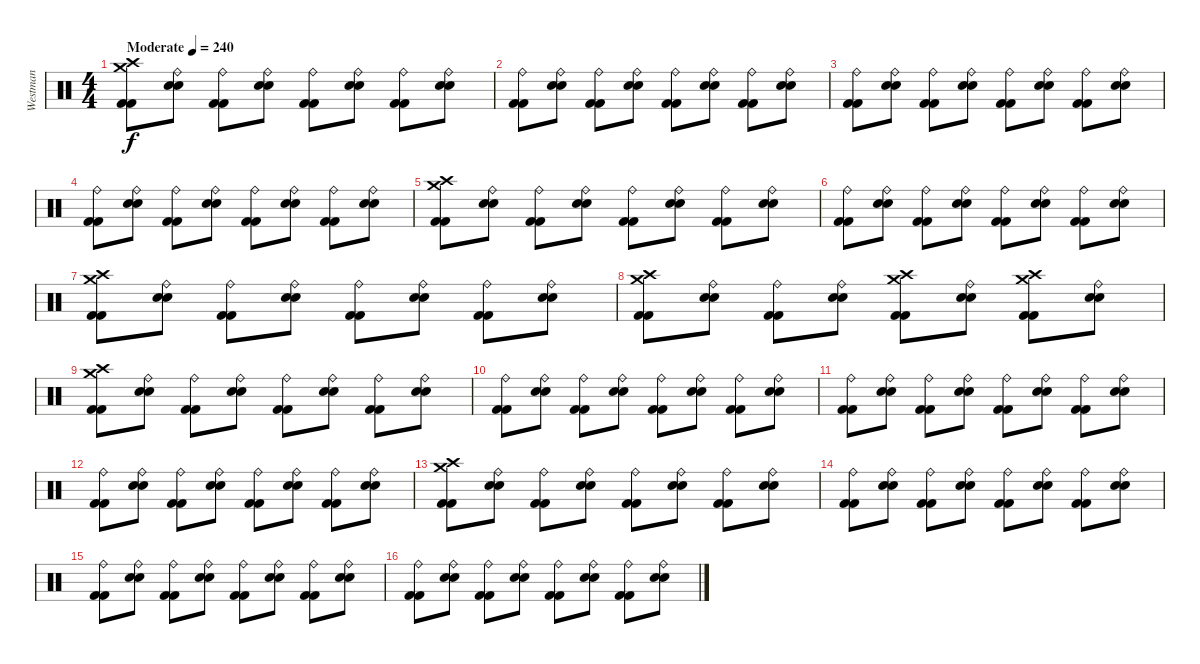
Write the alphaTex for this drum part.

\track ("Westman" "Westman") {instrument percussion}
\staff {score}
\articulation defaults
\ts (4 4)
\tempo (240 "Moderate")
\clef neutral
\ks c
("Kick (hit) 2" "Kick (hit) 2" "Crash medium (hit)" "Crash high (hit)").8{dy f} ("Electric Snare (hit)" "Electric Snare (hit)" "Ride (bell)").8 ("Kick (hit) 2" "Kick (hit) 2" "Ride (bell)").8 ("Electric Snare (hit)" "Electric Snare (hit)" "Ride (bell)").8 ("Kick (hit) 2" "Kick (hit) 2" "Ride (bell)").8 ("Electric Snare (hit)" "Electric Snare (hit)" "Ride (bell)").8 ("Kick (hit) 2" "Kick (hit) 2" "Ride (bell)").8 ("Electric Snare (hit)" "Electric Snare (hit)" "Ride (bell)").8 |
("Kick (hit) 2" "Kick (hit) 2" "Ride (bell)").8 ("Electric Snare (hit)" "Electric Snare (hit)" "Ride (bell)").8 ("Kick (hit) 2" "Kick (hit) 2" "Ride (bell)").8 ("Electric Snare (hit)" "Electric Snare (hit)" "Ride (bell)").8 ("Kick (hit) 2" "Kick (hit) 2" "Ride (bell)").8 ("Electric Snare (hit)" "Electric Snare (hit)" "Ride (bell)").8 ("Kick (hit) 2" "Kick (hit) 2" "Ride (bell)").8 ("Electric Snare (hit)" "Electric Snare (hit)" "Ride (bell)").8 |
("Kick (hit) 2" "Kick (hit) 2" "Ride (bell)").8 ("Electric Snare (hit)" "Electric Snare (hit)" "Ride (bell)").8 ("Kick (hit) 2" "Kick (hit) 2" "Ride (bell)").8 ("Electric Snare (hit)" "Electric Snare (hit)" "Ride (bell)").8 ("Kick (hit) 2" "Kick (hit) 2" "Ride (bell)").8 ("Electric Snare (hit)" "Electric Snare (hit)" "Ride (bell)").8 ("Kick (hit) 2" "Kick (hit) 2" "Ride (bell)").8 ("Electric Snare (hit)" "Electric Snare (hit)" "Ride (bell)").8 |
("Kick (hit) 2" "Kick (hit) 2" "Ride (bell)").8 ("Electric Snare (hit)" "Electric Snare (hit)" "Ride (bell)").8 ("Kick (hit) 2" "Kick (hit) 2" "Ride (bell)").8 ("Electric Snare (hit)" "Electric Snare (hit)" "Ride (bell)").8 ("Kick (hit) 2" "Kick (hit) 2" "Ride (bell)").8 ("Electric Snare (hit)" "Electric Snare (hit)" "Ride (bell)").8 ("Kick (hit) 2" "Kick (hit) 2" "Ride (bell)").8 ("Electric Snare (hit)" "Electric Snare (hit)" "Ride (bell)").8 |
("Kick (hit) 2" "Kick (hit) 2" "Crash medium (hit)" "Crash high (hit)").8 ("Electric Snare (hit)" "Electric Snare (hit)" "Ride (bell)").8 ("Kick (hit) 2" "Kick (hit) 2" "Ride (bell)").8 ("Electric Snare (hit)" "Electric Snare (hit)" "Ride (bell)").8 ("Kick (hit) 2" "Kick (hit) 2" "Ride (bell)").8 ("Electric Snare (hit)" "Electric Snare (hit)" "Ride (bell)").8 ("Kick (hit) 2" "Kick (hit) 2" "Ride (bell)").8 ("Electric Snare (hit)" "Electric Snare (hit)" "Ride (bell)").8 |
("Kick (hit) 2" "Kick (hit) 2" "Ride (bell)").8 ("Electric Snare (hit)" "Electric Snare (hit)" "Ride (bell)").8 ("Kick (hit) 2" "Kick (hit) 2" "Ride (bell)").8 ("Electric Snare (hit)" "Electric Snare (hit)" "Ride (bell)").8 ("Kick (hit) 2" "Kick (hit) 2" "Ride (bell)").8 ("Electric Snare (hit)" "Electric Snare (hit)" "Ride (bell)").8 ("Kick (hit) 2" "Kick (hit) 2" "Ride (bell)").8 ("Electric Snare (hit)" "Electric Snare (hit)" "Ride (bell)").8 |
("Kick (hit) 2" "Kick (hit) 2" "Crash high (hit)" "Crash medium (hit)").8 ("Electric Snare (hit)" "Electric Snare (hit)" "Ride (bell)").8 ("Kick (hit) 2" "Kick (hit) 2" "Ride (bell)").8 ("Electric Snare (hit)" "Electric Snare (hit)" "Ride (bell)").8 ("Kick (hit) 2" "Kick (hit) 2" "Ride (bell)").8 ("Electric Snare (hit)" "Electric Snare (hit)" "Ride (bell)").8 ("Kick (hit) 2" "Kick (hit) 2" "Ride (bell)").8 ("Electric Snare (hit)" "Electric Snare (hit)" "Ride (bell)").8 |
("Kick (hit) 2" "Kick (hit) 2" "Crash high (hit)" "Crash medium (hit)").8 ("Electric Snare (hit)" "Electric Snare (hit)" "Ride (bell)").8 ("Kick (hit) 2" "Kick (hit) 2" "Ride (bell)").8 ("Electric Snare (hit)" "Electric Snare (hit)" "Ride (bell)").8 ("Kick (hit) 2" "Kick (hit) 2" "Crash medium (hit)" "Crash high (hit)").8 ("Electric Snare (hit)" "Electric Snare (hit)" "Ride (bell)").8 ("Kick (hit) 2" "Kick (hit) 2" "Crash high (hit)" "Crash medium (hit)").8 ("Electric Snare (hit)" "Electric Snare (hit)" "Ride (bell)").8 |
("Kick (hit) 2" "Kick (hit) 2" "Crash medium (hit)" "Crash high (hit)").8 ("Electric Snare (hit)" "Electric Snare (hit)" "Ride (bell)").8 ("Kick (hit) 2" "Kick (hit) 2" "Ride (bell)").8 ("Electric Snare (hit)" "Electric Snare (hit)" "Ride (bell)").8 ("Kick (hit) 2" "Kick (hit) 2" "Ride (bell)").8 ("Electric Snare (hit)" "Electric Snare (hit)" "Ride (bell)").8 ("Kick (hit) 2" "Kick (hit) 2" "Ride (bell)").8 ("Electric Snare (hit)" "Electric Snare (hit)" "Ride (bell)").8 |
("Kick (hit) 2" "Kick (hit) 2" "Ride (bell)").8 ("Electric Snare (hit)" "Electric Snare (hit)" "Ride (bell)").8 ("Kick (hit) 2" "Kick (hit) 2" "Ride (bell)").8 ("Electric Snare (hit)" "Electric Snare (hit)" "Ride (bell)").8 ("Kick (hit) 2" "Kick (hit) 2" "Ride (bell)").8 ("Electric Snare (hit)" "Electric Snare (hit)" "Ride (bell)").8 ("Kick (hit) 2" "Kick (hit) 2" "Ride (bell)").8 ("Electric Snare (hit)" "Electric Snare (hit)" "Ride (bell)").8 |
("Kick (hit) 2" "Kick (hit) 2" "Ride (bell)").8 ("Electric Snare (hit)" "Electric Snare (hit)" "Ride (bell)").8 ("Kick (hit) 2" "Kick (hit) 2" "Ride (bell)").8 ("Electric Snare (hit)" "Electric Snare (hit)" "Ride (bell)").8 ("Kick (hit) 2" "Kick (hit) 2" "Ride (bell)").8 ("Electric Snare (hit)" "Electric Snare (hit)" "Ride (bell)").8 ("Kick (hit) 2" "Kick (hit) 2" "Ride (bell)").8 ("Electric Snare (hit)" "Electric Snare (hit)" "Ride (bell)").8 |
("Kick (hit) 2" "Kick (hit) 2" "Ride (bell)").8 ("Electric Snare (hit)" "Electric Snare (hit)" "Ride (bell)").8 ("Kick (hit) 2" "Kick (hit) 2" "Ride (bell)").8 ("Electric Snare (hit)" "Electric Snare (hit)" "Ride (bell)").8 ("Kick (hit) 2" "Kick (hit) 2" "Ride (bell)").8 ("Electric Snare (hit)" "Electric Snare (hit)" "Ride (bell)").8 ("Kick (hit) 2" "Kick (hit) 2" "Ride (bell)").8 ("Electric Snare (hit)" "Electric Snare (hit)" "Ride (bell)").8 |
("Kick (hit) 2" "Kick (hit) 2" "Crash medium (hit)" "Crash high (hit)").8 ("Electric Snare (hit)" "Electric Snare (hit)" "Ride (bell)").8 ("Kick (hit) 2" "Kick (hit) 2" "Ride (bell)").8 ("Electric Snare (hit)" "Electric Snare (hit)" "Ride (bell)").8 ("Kick (hit) 2" "Kick (hit) 2" "Ride (bell)").8 ("Electric Snare (hit)" "Electric Snare (hit)" "Ride (bell)").8 ("Kick (hit) 2" "Kick (hit) 2" "Ride (bell)").8 ("Electric Snare (hit)" "Electric Snare (hit)" "Ride (bell)").8 |
("Kick (hit) 2" "Kick (hit) 2" "Ride (bell)").8 ("Electric Snare (hit)" "Electric Snare (hit)" "Ride (bell)").8 ("Kick (hit) 2" "Kick (hit) 2" "Ride (bell)").8 ("Electric Snare (hit)" "Electric Snare (hit)" "Ride (bell)").8 ("Kick (hit) 2" "Kick (hit) 2" "Ride (bell)").8 ("Electric Snare (hit)" "Electric Snare (hit)" "Ride (bell)").8 ("Kick (hit) 2" "Kick (hit) 2" "Ride (bell)").8 ("Electric Snare (hit)" "Electric Snare (hit)" "Ride (bell)").8 |
("Kick (hit) 2" "Kick (hit) 2" "Ride (bell)").8 ("Electric Snare (hit)" "Electric Snare (hit)" "Ride (bell)").8 ("Kick (hit) 2" "Kick (hit) 2" "Ride (bell)").8 ("Electric Snare (hit)" "Electric Snare (hit)" "Ride (bell)").8 ("Kick (hit) 2" "Kick (hit) 2" "Ride (bell)").8 ("Electric Snare (hit)" "Electric Snare (hit)" "Ride (bell)").8 ("Kick (hit) 2" "Kick (hit) 2" "Ride (bell)").8 ("Electric Snare (hit)" "Electric Snare (hit)" "Ride (bell)").8 |
("Kick (hit) 2" "Kick (hit) 2" "Ride (bell)").8 ("Electric Snare (hit)" "Electric Snare (hit)" "Ride (bell)").8 ("Kick (hit) 2" "Kick (hit) 2" "Ride (bell)").8 ("Electric Snare (hit)" "Electric Snare (hit)" "Ride (bell)").8 ("Kick (hit) 2" "Kick (hit) 2" "Ride (bell)").8 ("Electric Snare (hit)" "Electric Snare (hit)" "Ride (bell)").8 ("Kick (hit) 2" "Kick (hit) 2" "Ride (bell)").8 ("Electric Snare (hit)" "Electric Snare (hit)" "Ride (bell)").8
